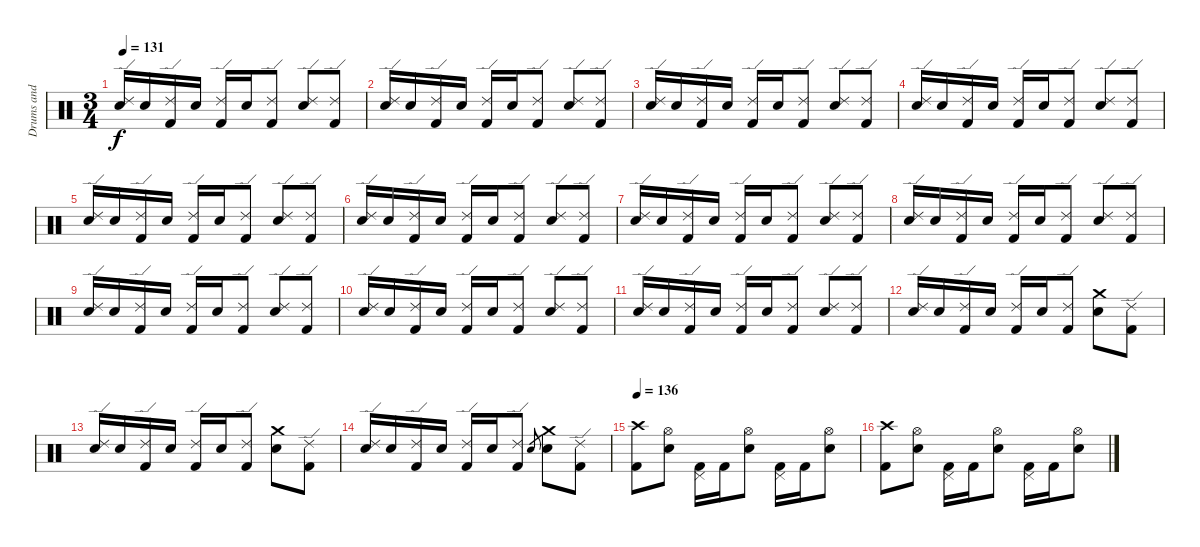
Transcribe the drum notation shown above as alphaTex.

\track ("Drums and percussion" "Drums and ") {instrument percussion}
\staff {score}
\articulation defaults
\ts (3 4)
\tempo 131
\clef neutral
\ks c
("Ride (edge) 2" "Electric Snare (hit)").16{dy f} "Electric Snare (hit)".16 ("Ride (edge) 2" "Kick (hit) 2").16 "Electric Snare (hit)".16 ("Ride (edge) 2" "Kick (hit) 2").16 "Electric Snare (hit)".16 ("Ride (edge) 2" "Kick (hit) 2").8 ("Ride (edge) 2" "Electric Snare (hit)").8 ("Ride (edge) 2" "Kick (hit) 2").8 |
("Ride (edge) 2" "Electric Snare (hit)").16 "Electric Snare (hit)".16 ("Ride (edge) 2" "Kick (hit) 2").16 "Electric Snare (hit)".16 ("Ride (edge) 2" "Kick (hit) 2").16 "Electric Snare (hit)".16 ("Ride (edge) 2" "Kick (hit) 2").8 ("Ride (edge) 2" "Electric Snare (hit)").8 ("Ride (edge) 2" "Kick (hit) 2").8 |
("Ride (edge) 2" "Electric Snare (hit)").16 "Electric Snare (hit)".16 ("Ride (edge) 2" "Kick (hit) 2").16 "Electric Snare (hit)".16 ("Ride (edge) 2" "Kick (hit) 2").16 "Electric Snare (hit)".16 ("Ride (edge) 2" "Kick (hit) 2").8 ("Ride (edge) 2" "Electric Snare (hit)").8 ("Ride (edge) 2" "Kick (hit) 2").8 |
("Ride (edge) 2" "Electric Snare (hit)").16 "Electric Snare (hit)".16 ("Ride (edge) 2" "Kick (hit) 2").16 "Electric Snare (hit)".16 ("Ride (edge) 2" "Kick (hit) 2").16 "Electric Snare (hit)".16 ("Ride (edge) 2" "Kick (hit) 2").8 ("Ride (edge) 2" "Electric Snare (hit)").8 ("Ride (edge) 2" "Kick (hit) 2").8 |
("Ride (edge) 2" "Electric Snare (hit)").16 "Electric Snare (hit)".16 ("Ride (edge) 2" "Kick (hit) 2").16 "Electric Snare (hit)".16 ("Ride (edge) 2" "Kick (hit) 2").16 "Electric Snare (hit)".16 ("Ride (edge) 2" "Kick (hit) 2").8 ("Ride (edge) 2" "Electric Snare (hit)").8 ("Ride (edge) 2" "Kick (hit) 2").8 |
("Ride (edge) 2" "Electric Snare (hit)").16 "Electric Snare (hit)".16 ("Ride (edge) 2" "Kick (hit) 2").16 "Electric Snare (hit)".16 ("Ride (edge) 2" "Kick (hit) 2").16 "Electric Snare (hit)".16 ("Ride (edge) 2" "Kick (hit) 2").8 ("Ride (edge) 2" "Electric Snare (hit)").8 ("Ride (edge) 2" "Kick (hit) 2").8 |
("Ride (edge) 2" "Electric Snare (hit)").16 "Electric Snare (hit)".16 ("Ride (edge) 2" "Kick (hit) 2").16 "Electric Snare (hit)".16 ("Ride (edge) 2" "Kick (hit) 2").16 "Electric Snare (hit)".16 ("Ride (edge) 2" "Kick (hit) 2").8 ("Ride (edge) 2" "Electric Snare (hit)").8 ("Ride (edge) 2" "Kick (hit) 2").8 |
("Ride (edge) 2" "Electric Snare (hit)").16 "Electric Snare (hit)".16 ("Ride (edge) 2" "Kick (hit) 2").16 "Electric Snare (hit)".16 ("Ride (edge) 2" "Kick (hit) 2").16 "Electric Snare (hit)".16 ("Ride (edge) 2" "Kick (hit) 2").8 ("Ride (edge) 2" "Electric Snare (hit)").8 ("Ride (edge) 2" "Kick (hit) 2").8 |
("Ride (edge) 2" "Electric Snare (hit)").16 "Electric Snare (hit)".16 ("Ride (edge) 2" "Kick (hit) 2").16 "Electric Snare (hit)".16 ("Ride (edge) 2" "Kick (hit) 2").16 "Electric Snare (hit)".16 ("Ride (edge) 2" "Kick (hit) 2").8 ("Ride (edge) 2" "Electric Snare (hit)").8 ("Ride (edge) 2" "Kick (hit) 2").8 |
("Ride (edge) 2" "Electric Snare (hit)").16 "Electric Snare (hit)".16 ("Ride (edge) 2" "Kick (hit) 2").16 "Electric Snare (hit)".16 ("Ride (edge) 2" "Kick (hit) 2").16 "Electric Snare (hit)".16 ("Ride (edge) 2" "Kick (hit) 2").8 ("Ride (edge) 2" "Electric Snare (hit)").8 ("Ride (edge) 2" "Kick (hit) 2").8 |
("Ride (edge) 2" "Electric Snare (hit)").16 "Electric Snare (hit)".16 ("Ride (edge) 2" "Kick (hit) 2").16 "Electric Snare (hit)".16 ("Ride (edge) 2" "Kick (hit) 2").16 "Electric Snare (hit)".16 ("Ride (edge) 2" "Kick (hit) 2").8 ("Ride (edge) 2" "Electric Snare (hit)").8 ("Ride (edge) 2" "Kick (hit) 2").8 |
("Ride (edge) 2" "Electric Snare (hit)").16 "Electric Snare (hit)".16 ("Ride (edge) 2" "Kick (hit) 2").16 "Electric Snare (hit)".16 ("Ride (edge) 2" "Kick (hit) 2").16 "Electric Snare (hit)".16 ("Ride (edge) 2" "Kick (hit) 2").8 ("Crash medium (hit)" "Electric Snare (hit)").8 ("Ride (edge) 2" "Kick (hit) 2").8 |
("Ride (edge) 2" "Electric Snare (hit)").16 "Electric Snare (hit)".16 ("Ride (edge) 2" "Kick (hit) 2").16 "Electric Snare (hit)".16 ("Ride (edge) 2" "Kick (hit) 2").16 "Electric Snare (hit)".16 ("Ride (edge) 2" "Kick (hit) 2").8 ("Crash medium (hit)" "Electric Snare (hit)").8 ("Ride (edge) 2" "Kick (hit) 2").8 |
("Ride (edge) 2" "Electric Snare (hit)").16 "Electric Snare (hit)".16 ("Ride (edge) 2" "Kick (hit) 2").16 "Electric Snare (hit)".16 ("Ride (edge) 2" "Kick (hit) 2").16 "Electric Snare (hit)".16 ("Ride (edge) 2" "Kick (hit) 2").8 "Electric Snare (hit)".8{gr} ("Crash medium (hit)" "Electric Snare (hit)").8 ("Ride (edge) 2" "Kick (hit) 2").8 |
\tempo 136
("Crash high (hit)" "Kick (hit) 2").8 ("Hi-Hat (open)" "Snare (hit) 2").8 ("Pedal Hi-Hat (hit)" "Kick (hit) 2").16 "Kick (hit) 2".16 ("Hi-Hat (open)" "Snare (hit) 2").8 ("Pedal Hi-Hat (hit)" "Kick (hit) 2").16 "Kick (hit) 2".16 ("Hi-Hat (open)" "Snare (hit) 2").8 |
("Crash high (hit)" "Kick (hit) 2").8 ("Hi-Hat (open)" "Snare (hit) 2").8 ("Pedal Hi-Hat (hit)" "Kick (hit) 2").16 "Kick (hit) 2".16 ("Hi-Hat (open)" "Snare (hit) 2").8 ("Pedal Hi-Hat (hit)" "Kick (hit) 2").16 "Kick (hit) 2".16 ("Hi-Hat (open)" "Snare (hit) 2").8
